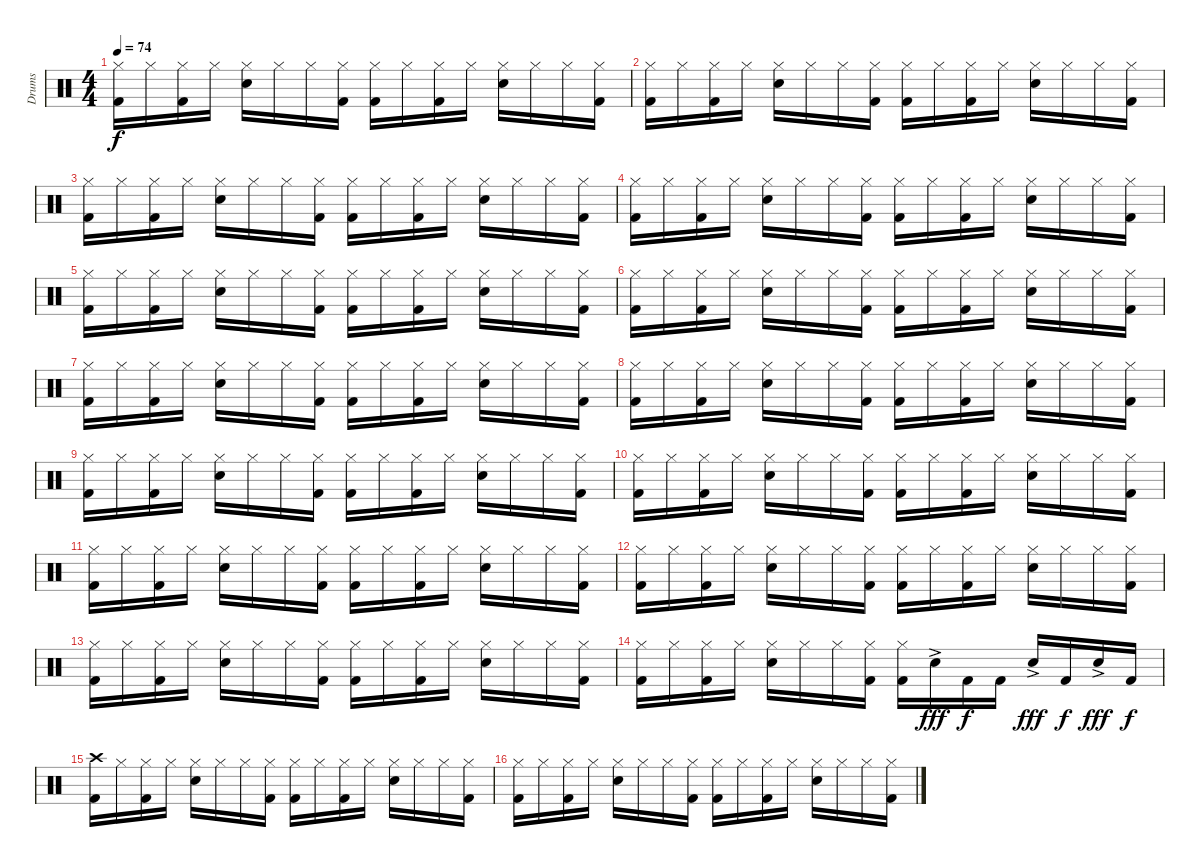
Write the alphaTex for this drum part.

\track ("Drums" "Drums") {instrument percussion}
\staff {score}
\articulation defaults
\ts (4 4)
\tempo 74
\clef neutral
\ks aminor
("Hi-Hat (closed)" "Kick (hit) 2").16{dy f} "Hi-Hat (closed)".16 ("Hi-Hat (closed)" "Kick (hit) 2").16 "Hi-Hat (closed)".16 ("Hi-Hat (closed)" "Snare (hit) 2").16 "Hi-Hat (closed)".16 "Hi-Hat (closed)".16 ("Hi-Hat (closed)" "Kick (hit) 2").16 ("Hi-Hat (closed)" "Kick (hit) 2").16 "Hi-Hat (closed)".16 ("Hi-Hat (closed)" "Kick (hit) 2").16 "Hi-Hat (closed)".16 ("Hi-Hat (closed)" "Snare (hit) 2").16 "Hi-Hat (closed)".16 "Hi-Hat (closed)".16 ("Hi-Hat (closed)" "Kick (hit) 2").16 |
("Hi-Hat (closed)" "Kick (hit) 2").16 "Hi-Hat (closed)".16 ("Hi-Hat (closed)" "Kick (hit) 2").16 "Hi-Hat (closed)".16 ("Hi-Hat (closed)" "Snare (hit) 2").16 "Hi-Hat (closed)".16 "Hi-Hat (closed)".16 ("Hi-Hat (closed)" "Kick (hit) 2").16 ("Hi-Hat (closed)" "Kick (hit) 2").16 "Hi-Hat (closed)".16 ("Hi-Hat (closed)" "Kick (hit) 2").16 "Hi-Hat (closed)".16 ("Hi-Hat (closed)" "Snare (hit) 2").16 "Hi-Hat (closed)".16 "Hi-Hat (closed)".16 ("Hi-Hat (closed)" "Kick (hit) 2").16 |
("Hi-Hat (closed)" "Kick (hit) 2").16 "Hi-Hat (closed)".16 ("Hi-Hat (closed)" "Kick (hit) 2").16 "Hi-Hat (closed)".16 ("Hi-Hat (closed)" "Snare (hit) 2").16 "Hi-Hat (closed)".16 "Hi-Hat (closed)".16 ("Hi-Hat (closed)" "Kick (hit) 2").16 ("Hi-Hat (closed)" "Kick (hit) 2").16 "Hi-Hat (closed)".16 ("Hi-Hat (closed)" "Kick (hit) 2").16 "Hi-Hat (closed)".16 ("Hi-Hat (closed)" "Snare (hit) 2").16 "Hi-Hat (closed)".16 "Hi-Hat (closed)".16 ("Hi-Hat (closed)" "Kick (hit) 2").16 |
("Hi-Hat (closed)" "Kick (hit) 2").16 "Hi-Hat (closed)".16 ("Hi-Hat (closed)" "Kick (hit) 2").16 "Hi-Hat (closed)".16 ("Hi-Hat (closed)" "Snare (hit) 2").16 "Hi-Hat (closed)".16 "Hi-Hat (closed)".16 ("Hi-Hat (closed)" "Kick (hit) 2").16 ("Hi-Hat (closed)" "Kick (hit) 2").16 "Hi-Hat (closed)".16 ("Hi-Hat (closed)" "Kick (hit) 2").16 "Hi-Hat (closed)".16 ("Hi-Hat (closed)" "Snare (hit) 2").16 "Hi-Hat (closed)".16 "Hi-Hat (closed)".16 ("Hi-Hat (closed)" "Kick (hit) 2").16 |
("Hi-Hat (closed)" "Kick (hit) 2").16 "Hi-Hat (closed)".16 ("Hi-Hat (closed)" "Kick (hit) 2").16 "Hi-Hat (closed)".16 ("Hi-Hat (closed)" "Snare (hit) 2").16 "Hi-Hat (closed)".16 "Hi-Hat (closed)".16 ("Hi-Hat (closed)" "Kick (hit) 2").16 ("Hi-Hat (closed)" "Kick (hit) 2").16 "Hi-Hat (closed)".16 ("Hi-Hat (closed)" "Kick (hit) 2").16 "Hi-Hat (closed)".16 ("Hi-Hat (closed)" "Snare (hit) 2").16 "Hi-Hat (closed)".16 "Hi-Hat (closed)".16 ("Hi-Hat (closed)" "Kick (hit) 2").16 |
("Hi-Hat (closed)" "Kick (hit) 2").16 "Hi-Hat (closed)".16 ("Hi-Hat (closed)" "Kick (hit) 2").16 "Hi-Hat (closed)".16 ("Hi-Hat (closed)" "Snare (hit) 2").16 "Hi-Hat (closed)".16 "Hi-Hat (closed)".16 ("Hi-Hat (closed)" "Kick (hit) 2").16 ("Hi-Hat (closed)" "Kick (hit) 2").16 "Hi-Hat (closed)".16 ("Hi-Hat (closed)" "Kick (hit) 2").16 "Hi-Hat (closed)".16 ("Hi-Hat (closed)" "Snare (hit) 2").16 "Hi-Hat (closed)".16 "Hi-Hat (closed)".16 ("Hi-Hat (closed)" "Kick (hit) 2").16 |
("Hi-Hat (closed)" "Kick (hit) 2").16 "Hi-Hat (closed)".16 ("Hi-Hat (closed)" "Kick (hit) 2").16 "Hi-Hat (closed)".16 ("Hi-Hat (closed)" "Snare (hit) 2").16 "Hi-Hat (closed)".16 "Hi-Hat (closed)".16 ("Hi-Hat (closed)" "Kick (hit) 2").16 ("Hi-Hat (closed)" "Kick (hit) 2").16 "Hi-Hat (closed)".16 ("Hi-Hat (closed)" "Kick (hit) 2").16 "Hi-Hat (closed)".16 ("Hi-Hat (closed)" "Snare (hit) 2").16 "Hi-Hat (closed)".16 "Hi-Hat (closed)".16 ("Hi-Hat (closed)" "Kick (hit) 2").16 |
("Hi-Hat (closed)" "Kick (hit) 2").16 "Hi-Hat (closed)".16 ("Hi-Hat (closed)" "Kick (hit) 2").16 "Hi-Hat (closed)".16 ("Hi-Hat (closed)" "Snare (hit) 2").16 "Hi-Hat (closed)".16 "Hi-Hat (closed)".16 ("Hi-Hat (closed)" "Kick (hit) 2").16 ("Hi-Hat (closed)" "Kick (hit) 2").16 "Hi-Hat (closed)".16 ("Hi-Hat (closed)" "Kick (hit) 2").16 "Hi-Hat (closed)".16 ("Hi-Hat (closed)" "Snare (hit) 2").16 "Hi-Hat (closed)".16 "Hi-Hat (closed)".16 ("Hi-Hat (closed)" "Kick (hit) 2").16 |
("Hi-Hat (closed)" "Kick (hit) 2").16 "Hi-Hat (closed)".16 ("Hi-Hat (closed)" "Kick (hit) 2").16 "Hi-Hat (closed)".16 ("Hi-Hat (closed)" "Snare (hit) 2").16 "Hi-Hat (closed)".16 "Hi-Hat (closed)".16 ("Hi-Hat (closed)" "Kick (hit) 2").16 ("Hi-Hat (closed)" "Kick (hit) 2").16 "Hi-Hat (closed)".16 ("Hi-Hat (closed)" "Kick (hit) 2").16 "Hi-Hat (closed)".16 ("Hi-Hat (closed)" "Snare (hit) 2").16 "Hi-Hat (closed)".16 "Hi-Hat (closed)".16 ("Hi-Hat (closed)" "Kick (hit) 2").16 |
("Hi-Hat (closed)" "Kick (hit) 2").16 "Hi-Hat (closed)".16 ("Hi-Hat (closed)" "Kick (hit) 2").16 "Hi-Hat (closed)".16 ("Hi-Hat (closed)" "Snare (hit) 2").16 "Hi-Hat (closed)".16 "Hi-Hat (closed)".16 ("Hi-Hat (closed)" "Kick (hit) 2").16 ("Hi-Hat (closed)" "Kick (hit) 2").16 "Hi-Hat (closed)".16 ("Hi-Hat (closed)" "Kick (hit) 2").16 "Hi-Hat (closed)".16 ("Hi-Hat (closed)" "Snare (hit) 2").16 "Hi-Hat (closed)".16 "Hi-Hat (closed)".16 ("Hi-Hat (closed)" "Kick (hit) 2").16 |
("Hi-Hat (closed)" "Kick (hit) 2").16 "Hi-Hat (closed)".16 ("Hi-Hat (closed)" "Kick (hit) 2").16 "Hi-Hat (closed)".16 ("Hi-Hat (closed)" "Snare (hit) 2").16 "Hi-Hat (closed)".16 "Hi-Hat (closed)".16 ("Hi-Hat (closed)" "Kick (hit) 2").16 ("Hi-Hat (closed)" "Kick (hit) 2").16 "Hi-Hat (closed)".16 ("Hi-Hat (closed)" "Kick (hit) 2").16 "Hi-Hat (closed)".16 ("Hi-Hat (closed)" "Snare (hit) 2").16 "Hi-Hat (closed)".16 "Hi-Hat (closed)".16 ("Hi-Hat (closed)" "Kick (hit) 2").16 |
("Hi-Hat (closed)" "Kick (hit) 2").16 "Hi-Hat (closed)".16 ("Hi-Hat (closed)" "Kick (hit) 2").16 "Hi-Hat (closed)".16 ("Hi-Hat (closed)" "Snare (hit) 2").16 "Hi-Hat (closed)".16 "Hi-Hat (closed)".16 ("Hi-Hat (closed)" "Kick (hit) 2").16 ("Hi-Hat (closed)" "Kick (hit) 2").16 "Hi-Hat (closed)".16 ("Hi-Hat (closed)" "Kick (hit) 2").16 "Hi-Hat (closed)".16 ("Hi-Hat (closed)" "Snare (hit) 2").16 "Hi-Hat (closed)".16 "Hi-Hat (closed)".16 ("Hi-Hat (closed)" "Kick (hit) 2").16 |
("Hi-Hat (closed)" "Kick (hit) 2").16 "Hi-Hat (closed)".16 ("Hi-Hat (closed)" "Kick (hit) 2").16 "Hi-Hat (closed)".16 ("Hi-Hat (closed)" "Snare (hit) 2").16 "Hi-Hat (closed)".16 "Hi-Hat (closed)".16 ("Hi-Hat (closed)" "Kick (hit) 2").16 ("Hi-Hat (closed)" "Kick (hit) 2").16 "Hi-Hat (closed)".16 ("Hi-Hat (closed)" "Kick (hit) 2").16 "Hi-Hat (closed)".16 ("Hi-Hat (closed)" "Snare (hit) 2").16 "Hi-Hat (closed)".16 "Hi-Hat (closed)".16 ("Hi-Hat (closed)" "Kick (hit) 2").16 |
("Hi-Hat (closed)" "Kick (hit) 2").16 "Hi-Hat (closed)".16 ("Hi-Hat (closed)" "Kick (hit) 2").16 "Hi-Hat (closed)".16 ("Hi-Hat (closed)" "Snare (hit) 2").16 "Hi-Hat (closed)".16 "Hi-Hat (closed)".16 ("Hi-Hat (closed)" "Kick (hit) 2").16 ("Hi-Hat (closed)" "Kick (hit) 2").16 "Snare (hit) 2"{ac}.16{dy fff} "Kick (hit) 2".16{dy f} "Kick (hit) 2".16 "Snare (hit) 2"{ac}.16{dy fff} "Kick (hit) 2".16{dy f} "Snare (hit) 2"{ac}.16{dy fff} "Kick (hit) 2".16{dy f} |
("Crash high (hit)" "Kick (hit) 2").16 "Hi-Hat (closed)".16 ("Hi-Hat (closed)" "Kick (hit) 2").16 "Hi-Hat (closed)".16 ("Hi-Hat (closed)" "Snare (hit) 2").16 "Hi-Hat (closed)".16 "Hi-Hat (closed)".16 ("Hi-Hat (closed)" "Kick (hit) 2").16 ("Hi-Hat (closed)" "Kick (hit) 2").16 "Hi-Hat (closed)".16 ("Hi-Hat (closed)" "Kick (hit) 2").16 "Hi-Hat (closed)".16 ("Hi-Hat (closed)" "Snare (hit) 2").16 "Hi-Hat (closed)".16 "Hi-Hat (closed)".16 ("Hi-Hat (closed)" "Kick (hit) 2").16 |
("Hi-Hat (closed)" "Kick (hit) 2").16 "Hi-Hat (closed)".16 ("Hi-Hat (closed)" "Kick (hit) 2").16 "Hi-Hat (closed)".16 ("Hi-Hat (closed)" "Snare (hit) 2").16 "Hi-Hat (closed)".16 "Hi-Hat (closed)".16 ("Hi-Hat (closed)" "Kick (hit) 2").16 ("Hi-Hat (closed)" "Kick (hit) 2").16 "Hi-Hat (closed)".16 ("Hi-Hat (closed)" "Kick (hit) 2").16 "Hi-Hat (closed)".16 ("Hi-Hat (closed)" "Snare (hit) 2").16 "Hi-Hat (closed)".16 "Hi-Hat (closed)".16 ("Hi-Hat (closed)" "Kick (hit) 2").16
